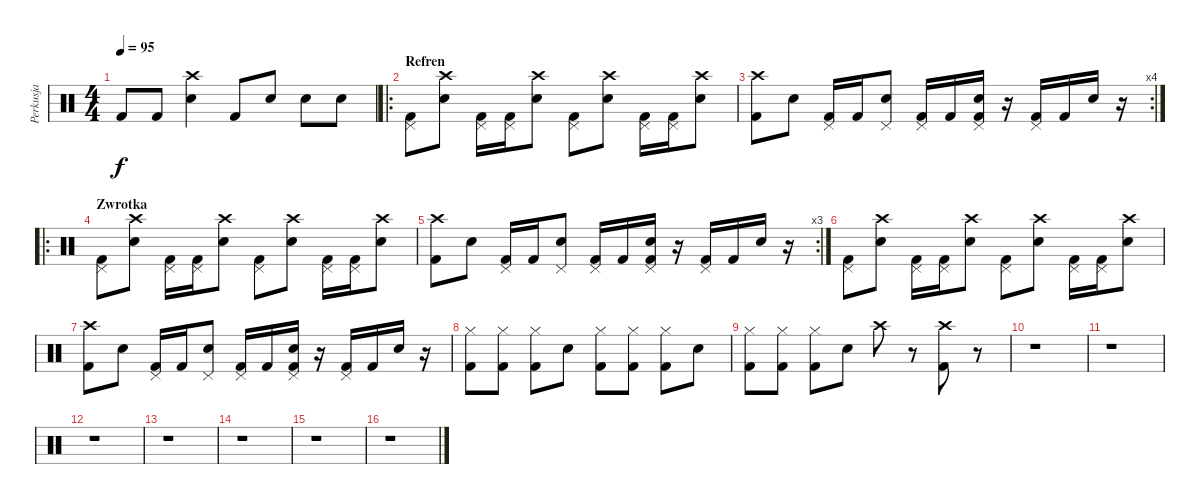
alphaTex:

\track ("Perkusja" "Perkusja") {instrument percussion}
\staff {score}
\articulation defaults
\ts (4 4)
\tempo 95
\clef neutral
\ks c "Kick (hit) 2".8{dy f} "Kick (hit) 2".8
("Crash high (hit)" "Snare (hit) 2").4 "Kick (hit) 2".8 "Snare (hit) 2".8 "Snare (hit) 2".8 "Snare (hit) 2".8 |
\ro
\section ("" "Refren")
("Pedal Hi-Hat (hit)" "Kick (hit) 2").8 ("Crash high (hit)" "Snare (hit) 2").8 ("Pedal Hi-Hat (hit)" "Kick (hit) 2").16 ("Pedal Hi-Hat (hit)" "Kick (hit) 2").16 ("Crash high (hit)" "Snare (hit) 2").8 ("Pedal Hi-Hat (hit)" "Kick (hit) 2").8 ("Crash high (hit)" "Snare (hit) 2").8 ("Pedal Hi-Hat (hit)" "Kick (hit) 2").16 ("Pedal Hi-Hat (hit)" "Kick (hit) 2").16 ("Crash high (hit)" "Snare (hit) 2").8 |
\rc 4
("Crash high (hit)" "Kick (hit) 2").8 "Snare (hit) 2".8 ("Pedal Hi-Hat (hit)" "Kick (hit) 2").16 "Kick (hit) 2".16 ("Pedal Hi-Hat (hit)" "Snare (hit) 2").8 ("Pedal Hi-Hat (hit)" "Kick (hit) 2").16 "Kick (hit) 2".16 ("Pedal Hi-Hat (hit)" "Snare (hit) 2" "Kick (hit) 2").16 r.16 ("Pedal Hi-Hat (hit)" "Kick (hit) 2").16 "Kick (hit) 2".16 "Snare (hit) 2".16 r.16 |
\ro
\section ("" "Zwrotka")
("Pedal Hi-Hat (hit)" "Kick (hit) 2").8 ("Crash high (hit)" "Snare (hit) 2").8 ("Pedal Hi-Hat (hit)" "Kick (hit) 2").16 ("Pedal Hi-Hat (hit)" "Kick (hit) 2").16 ("Crash high (hit)" "Snare (hit) 2").8 ("Pedal Hi-Hat (hit)" "Kick (hit) 2").8 ("Crash high (hit)" "Snare (hit) 2").8 ("Pedal Hi-Hat (hit)" "Kick (hit) 2").16 ("Pedal Hi-Hat (hit)" "Kick (hit) 2").16 ("Crash high (hit)" "Snare (hit) 2").8 |
\rc 3
("Crash high (hit)" "Kick (hit) 2").8 "Snare (hit) 2".8 ("Pedal Hi-Hat (hit)" "Kick (hit) 2").16 "Kick (hit) 2".16 ("Pedal Hi-Hat (hit)" "Snare (hit) 2").8 ("Pedal Hi-Hat (hit)" "Kick (hit) 2").16 "Kick (hit) 2".16 ("Pedal Hi-Hat (hit)" "Snare (hit) 2" "Kick (hit) 2").16 r.16 ("Pedal Hi-Hat (hit)" "Kick (hit) 2").16 "Kick (hit) 2".16 "Snare (hit) 2".16 r.16 |
("Pedal Hi-Hat (hit)" "Kick (hit) 2").8 ("Crash high (hit)" "Snare (hit) 2").8 ("Pedal Hi-Hat (hit)" "Kick (hit) 2").16 ("Pedal Hi-Hat (hit)" "Kick (hit) 2").16 ("Crash high (hit)" "Snare (hit) 2").8 ("Pedal Hi-Hat (hit)" "Kick (hit) 2").8 ("Crash high (hit)" "Snare (hit) 2").8 ("Pedal Hi-Hat (hit)" "Kick (hit) 2").16 ("Pedal Hi-Hat (hit)" "Kick (hit) 2").16 ("Crash high (hit)" "Snare (hit) 2").8 |
("Crash high (hit)" "Kick (hit) 2").8 "Snare (hit) 2".8 ("Pedal Hi-Hat (hit)" "Kick (hit) 2").16 "Kick (hit) 2".16 ("Pedal Hi-Hat (hit)" "Snare (hit) 2").8 ("Pedal Hi-Hat (hit)" "Kick (hit) 2").16 "Kick (hit) 2".16 ("Pedal Hi-Hat (hit)" "Snare (hit) 2" "Kick (hit) 2").16 r.16 ("Pedal Hi-Hat (hit)" "Kick (hit) 2").16 "Kick (hit) 2".16 "Snare (hit) 2".16 r.16 |
("Hi-Hat (closed)" "Kick (hit) 2").8 ("Hi-Hat (closed)" "Kick (hit) 2").8 ("Hi-Hat (closed)" "Kick (hit) 2").8 "Snare (hit) 2".8 ("Hi-Hat (closed)" "Kick (hit) 2").8 ("Hi-Hat (closed)" "Kick (hit) 2").8 ("Hi-Hat (closed)" "Kick (hit) 2").8 "Snare (hit) 2".8 |
("Hi-Hat (closed)" "Kick (hit) 2").8 ("Hi-Hat (closed)" "Kick (hit) 2").8 ("Hi-Hat (closed)" "Kick (hit) 2").8 "Snare (hit) 2".8 "Crash high (hit)".8 r.8 ("Crash high (hit)" "Kick (hit) 2").8 r.8 |
r.1 |
r.1 |
r.1 |
r.1 |
r.1 |
r.1 |
r.1
